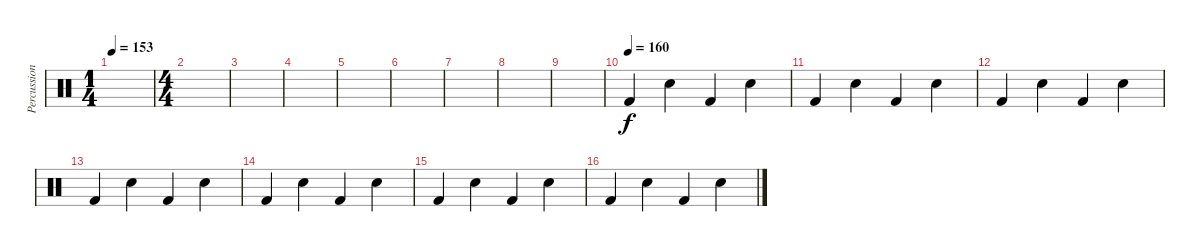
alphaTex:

\track ("Percussions" "Percussion") {instrument percussion}
\staff {score}
\articulation defaults
\ts (1 4)
\tempo 153
\tempo 72
\tempo 153
\clef neutral
\ks c
|
\ts (4 4)
|
|
|
|
|
|
|
|
\tempo (160)
"Kick (hit) 2".4 "Electric Snare (hit)".4 "Kick (hit) 2".4 "Electric Snare (hit)".4 |
"Kick (hit) 2".4 "Electric Snare (hit)".4 "Kick (hit) 2".4 "Electric Snare (hit)".4 |
"Kick (hit) 2".4 "Electric Snare (hit)".4 "Kick (hit) 2".4 "Electric Snare (hit)".4 |
"Kick (hit) 2".4 "Electric Snare (hit)".4 "Kick (hit) 2".4 "Electric Snare (hit)".4 |
"Kick (hit) 2".4 "Electric Snare (hit)".4 "Kick (hit) 2".4 "Electric Snare (hit)".4 |
"Kick (hit) 2".4 "Electric Snare (hit)".4 "Kick (hit) 2".4 "Electric Snare (hit)".4 |
"Kick (hit) 2".4 "Electric Snare (hit)".4 "Kick (hit) 2".4 "Electric Snare (hit)".4
